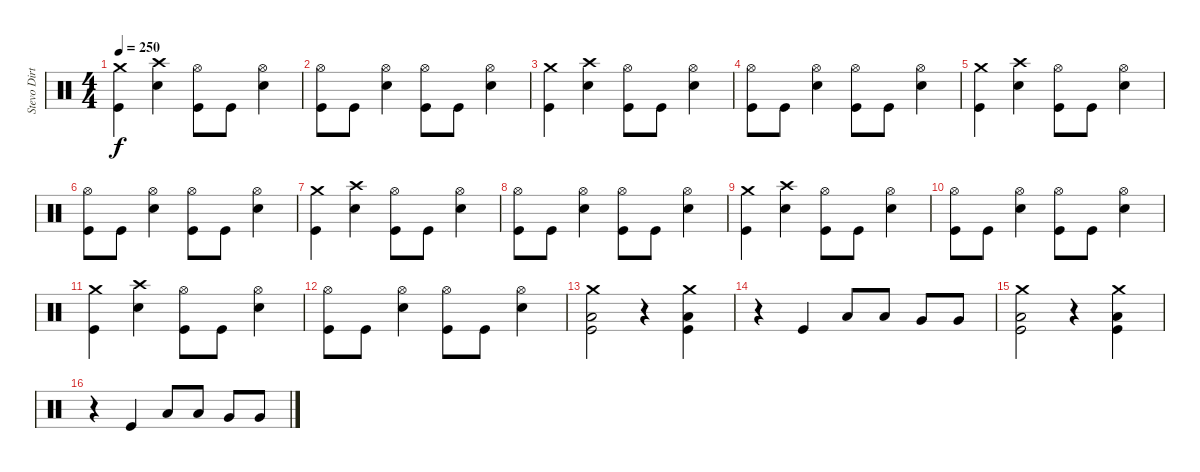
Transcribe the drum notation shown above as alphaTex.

\track ("Stevo Dirty Poo" "Stevo Dirt") {instrument percussion}
\staff {score}
\articulation defaults
\ts (4 4)
\tempo 250
\clef neutral
\ks c
("Crash medium (hit)" "Kick (hit)").4{dy f} ("Crash high (hit)" "Snare (hit) 2").4 ("Hi-Hat (open)" "Kick (hit)").8 "Kick (hit)".8 ("Hi-Hat (open)" "Snare (hit) 2").4 |
("Hi-Hat (open)" "Kick (hit)").8 "Kick (hit)".8 ("Hi-Hat (open)" "Snare (hit) 2").4 ("Hi-Hat (open)" "Kick (hit)").8 "Kick (hit)".8 ("Hi-Hat (open)" "Snare (hit) 2").4 |
("Crash medium (hit)" "Kick (hit)").4 ("Crash high (hit)" "Snare (hit) 2").4 ("Hi-Hat (open)" "Kick (hit)").8 "Kick (hit)".8 ("Hi-Hat (open)" "Snare (hit) 2").4 |
("Hi-Hat (open)" "Kick (hit)").8 "Kick (hit)".8 ("Hi-Hat (open)" "Snare (hit) 2").4 ("Hi-Hat (open)" "Kick (hit)").8 "Kick (hit)".8 ("Hi-Hat (open)" "Snare (hit) 2").4 |
("Crash medium (hit)" "Kick (hit)").4 ("Crash high (hit)" "Snare (hit) 2").4 ("Hi-Hat (open)" "Kick (hit)").8 "Kick (hit)".8 ("Hi-Hat (open)" "Snare (hit) 2").4 |
("Hi-Hat (open)" "Kick (hit)").8 "Kick (hit)".8 ("Hi-Hat (open)" "Snare (hit) 2").4 ("Hi-Hat (open)" "Kick (hit)").8 "Kick (hit)".8 ("Hi-Hat (open)" "Snare (hit) 2").4 |
("Crash medium (hit)" "Kick (hit)").4 ("Crash high (hit)" "Snare (hit) 2").4 ("Hi-Hat (open)" "Kick (hit)").8 "Kick (hit)".8 ("Hi-Hat (open)" "Snare (hit) 2").4 |
("Hi-Hat (open)" "Kick (hit)").8 "Kick (hit)".8 ("Hi-Hat (open)" "Snare (hit) 2").4 ("Hi-Hat (open)" "Kick (hit)").8 "Kick (hit)".8 ("Hi-Hat (open)" "Snare (hit) 2").4 |
("Crash medium (hit)" "Kick (hit)").4 ("Crash high (hit)" "Snare (hit) 2").4 ("Hi-Hat (open)" "Kick (hit)").8 "Kick (hit)".8 ("Hi-Hat (open)" "Snare (hit) 2").4 |
("Hi-Hat (open)" "Kick (hit)").8 "Kick (hit)".8 ("Hi-Hat (open)" "Snare (hit) 2").4 ("Hi-Hat (open)" "Kick (hit)").8 "Kick (hit)".8 ("Hi-Hat (open)" "Snare (hit) 2").4 |
("Crash medium (hit)" "Kick (hit)").4 ("Crash high (hit)" "Snare (hit) 2").4 ("Hi-Hat (open)" "Kick (hit)").8 "Kick (hit)".8 ("Hi-Hat (open)" "Snare (hit) 2").4 |
("Hi-Hat (open)" "Kick (hit)").8 "Kick (hit)".8 ("Hi-Hat (open)" "Snare (hit) 2").4 ("Hi-Hat (open)" "Kick (hit)").8 "Kick (hit)".8 ("Hi-Hat (open)" "Snare (hit) 2").4 |
("Crash medium (hit)" "Low Floor Tom (hit)" "Kick (hit)").2 r.4 ("Crash medium (hit)" "Low Floor Tom (hit)" "Kick (hit)").4 |
r.4 "Kick (hit)".4 "Low Tom (hit)".8 "Low Tom (hit)".8 "Very Low Tom (hit)".8 "Very Low Tom (hit)".8 |
("Crash medium (hit)" "Low Floor Tom (hit)" "Kick (hit)").2 r.4 ("Crash medium (hit)" "Low Floor Tom (hit)" "Kick (hit)").4 |
r.4 "Kick (hit)".4 "Low Tom (hit)".8 "Low Tom (hit)".8 "Very Low Tom (hit)".8 "Very Low Tom (hit)".8
